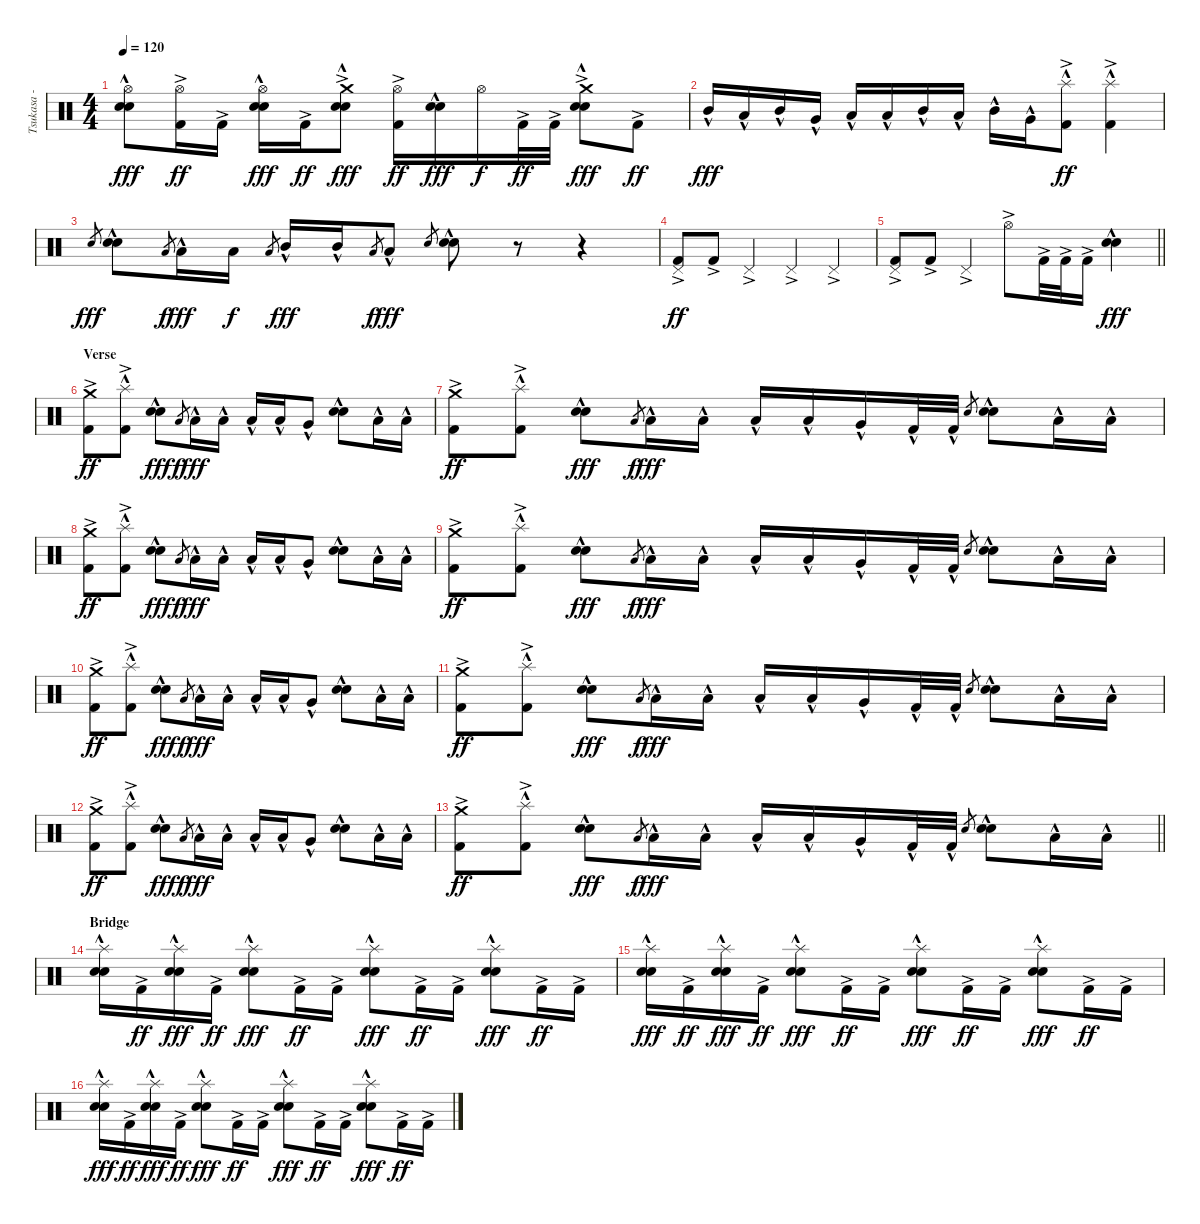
\track ("Tsukasa - Drums" "Tsukasa - ") {instrument percussion}
\staff {score}
\articulation defaults
\ts (4 4)
\tempo 120
\clef neutral
\ks c
("Hi-Hat (open)" "Electric Snare (hit)"{hac} "Snare (hit) 2"{hac}).8{dy fff} ("Hi-Hat (open)" "Kick (hit) 2"{ac}).16{dy ff} "Kick (hit) 2"{ac}.16 ("Hi-Hat (open)" "Electric Snare (hit)"{hac} "Snare (hit) 2"{hac}).16{dy fff} "Kick (hit) 2"{ac}.16{dy ff} ("Crash medium (hit)"{ac} "Electric Snare (hit)"{hac} "Snare (hit) 2"{hac}).8{dy fff} ("Hi-Hat (open)" "Kick (hit) 2"{ac}).16{dy ff} ("Electric Snare (hit)"{hac} "Snare (hit) 2"{hac}).16{dy fff} "Hi-Hat (open)".16{dy f} "Kick (hit) 2"{ac}.32{dy ff} "Kick (hit) 2"{ac}.32 ("Crash medium (hit)"{ac} "Electric Snare (hit)"{hac} "Snare (hit) 2"{hac}).8{dy fff} "Kick (hit) 2"{ac}.8{dy ff} |
"Mid Tom (hit)"{hac}.16{dy fff} "Low Tom (hit)"{hac}.16 "Mid Tom (hit)"{hac}.16 "Very Low Tom (hit)"{hac}.16 "Low Tom (hit)"{hac}.16 "Low Floor Tom (hit)"{hac}.16 "Mid Tom (hit)"{hac}.16 "Low Tom (hit)"{hac}.16 "Mid Tom (hit)"{hac}.16 "Very Low Tom (hit)"{hac}.16 ("Splash (hit)"{hac} "Kick (hit) 2"{ac}).8{dy ff} ("Splash (hit)"{hac} "Kick (hit) 2"{ac}).4 |
"Electric Snare (hit)".8{gr dy fff} ("Electric Snare (hit)"{hac} "Snare (hit) 2"{hac}).8 "Low Tom (hit)".8{gr dy f} "Low Tom (hit)"{hac}.16{dy fff} "Low Tom (hit)".16{dy f} "Low Tom (hit)".8{gr} "Mid Tom (hit)"{hac}.16{dy fff} "Mid Tom (hit)"{hac}.16 "Low Tom (hit)".8{gr dy f} "Low Tom (hit)"{hac}.8{dy fff} "Electric Snare (hit)".8{gr} ("Electric Snare (hit)"{hac} "Snare (hit) 2"{hac}).8 r.8 r.4 |
("Pedal Hi-Hat (hit)" "Kick (hit) 2"{ac}).8{dy ff} "Kick (hit) 2"{ac}.8 "Pedal Hi-Hat (hit)"{ac}.4 "Pedal Hi-Hat (hit)"{ac}.4 "Pedal Hi-Hat (hit)"{ac}.4 |
\barLineRight lightlight
("Pedal Hi-Hat (hit)" "Kick (hit) 2"{ac}).8 "Kick (hit) 2"{ac}.8 "Pedal Hi-Hat (hit)"{ac}.4 "Hi-Hat (open)"{ac}.8 "Kick (hit) 2"{ac}.32 "Kick (hit) 2"{ac}.32 "Kick (hit) 2"{ac}.16 ("Electric Snare (hit)"{hac} "Snare (hit) 2"{hac}).4{dy fff} |
\section ("" "Verse")
("Crash medium (hit)"{ac} "Kick (hit) 2"{ac}).8{dy ff} ("Splash (hit)"{hac} "Kick (hit) 2"{ac}).8 ("Electric Snare (hit)"{hac} "Snare (hit) 2"{hac}).8{dy fff} "Low Tom (hit)".8{gr dy f} "Low Tom (hit)"{hac}.16{dy fff} "Low Tom (hit)"{hac}.16 "Low Tom (hit)"{hac}.16 "Low Tom (hit)"{hac}.16 "Very Low Tom (hit)"{hac}.8 ("Electric Snare (hit)"{hac} "Snare (hit) 2"{hac}).8 "Low Floor Tom (hit)"{hac}.16 "Low Floor Tom (hit)"{hac}.16 |
("Crash medium (hit)"{ac} "Kick (hit) 2"{ac}).8{dy ff} ("Splash (hit)"{hac} "Kick (hit) 2"{ac}).8 ("Electric Snare (hit)"{hac} "Snare (hit) 2"{hac}).8{dy fff} "Low Tom (hit)".8{gr dy f} "Low Tom (hit)"{hac}.16{dy fff} "Low Tom (hit)"{hac}.16 "Low Tom (hit)"{hac}.16 "Low Tom (hit)"{hac}.16 "Very Low Tom (hit)"{hac}.16 "Kick (hit) 2"{hac}.32 "Kick (hit) 2"{hac}.32 "Electric Snare (hit)".8{gr} ("Electric Snare (hit)"{hac} "Snare (hit) 2"{hac}).8 "Low Floor Tom (hit)"{hac}.16 "Low Floor Tom (hit)"{hac}.16 |
("Crash medium (hit)"{ac} "Kick (hit) 2"{ac}).8{dy ff} ("Splash (hit)"{hac} "Kick (hit) 2"{ac}).8 ("Electric Snare (hit)"{hac} "Snare (hit) 2"{hac}).8{dy fff} "Low Tom (hit)".8{gr dy f} "Low Tom (hit)"{hac}.16{dy fff} "Low Tom (hit)"{hac}.16 "Low Tom (hit)"{hac}.16 "Low Tom (hit)"{hac}.16 "Very Low Tom (hit)"{hac}.8 ("Electric Snare (hit)"{hac} "Snare (hit) 2"{hac}).8 "Low Floor Tom (hit)"{hac}.16 "Low Floor Tom (hit)"{hac}.16 |
("Crash medium (hit)"{ac} "Kick (hit) 2"{ac}).8{dy ff} ("Splash (hit)"{hac} "Kick (hit) 2"{ac}).8 ("Electric Snare (hit)"{hac} "Snare (hit) 2"{hac}).8{dy fff} "Low Tom (hit)".8{gr dy f} "Low Tom (hit)"{hac}.16{dy fff} "Low Tom (hit)"{hac}.16 "Low Tom (hit)"{hac}.16 "Low Tom (hit)"{hac}.16 "Very Low Tom (hit)"{hac}.16 "Kick (hit) 2"{hac}.32 "Kick (hit) 2"{hac}.32 "Electric Snare (hit)".8{gr} ("Electric Snare (hit)"{hac} "Snare (hit) 2"{hac}).8 "Low Floor Tom (hit)"{hac}.16 "Low Floor Tom (hit)"{hac}.16 |
("Crash medium (hit)"{ac} "Kick (hit) 2"{ac}).8{dy ff} ("Splash (hit)"{hac} "Kick (hit) 2"{ac}).8 ("Electric Snare (hit)"{hac} "Snare (hit) 2"{hac}).8{dy fff} "Low Tom (hit)".8{gr dy f} "Low Tom (hit)"{hac}.16{dy fff} "Low Tom (hit)"{hac}.16 "Low Tom (hit)"{hac}.16 "Low Tom (hit)"{hac}.16 "Very Low Tom (hit)"{hac}.8 ("Electric Snare (hit)"{hac} "Snare (hit) 2"{hac}).8 "Low Floor Tom (hit)"{hac}.16 "Low Floor Tom (hit)"{hac}.16 |
("Crash medium (hit)"{ac} "Kick (hit) 2"{ac}).8{dy ff} ("Splash (hit)"{hac} "Kick (hit) 2"{ac}).8 ("Electric Snare (hit)"{hac} "Snare (hit) 2"{hac}).8{dy fff} "Low Tom (hit)".8{gr dy f} "Low Tom (hit)"{hac}.16{dy fff} "Low Tom (hit)"{hac}.16 "Low Tom (hit)"{hac}.16 "Low Tom (hit)"{hac}.16 "Very Low Tom (hit)"{hac}.16 "Kick (hit) 2"{hac}.32 "Kick (hit) 2"{hac}.32 "Electric Snare (hit)".8{gr} ("Electric Snare (hit)"{hac} "Snare (hit) 2"{hac}).8 "Low Floor Tom (hit)"{hac}.16 "Low Floor Tom (hit)"{hac}.16 |
("Crash medium (hit)"{ac} "Kick (hit) 2"{ac}).8{dy ff} ("Splash (hit)"{hac} "Kick (hit) 2"{ac}).8 ("Electric Snare (hit)"{hac} "Snare (hit) 2"{hac}).8{dy fff} "Low Tom (hit)".8{gr dy f} "Low Tom (hit)"{hac}.16{dy fff} "Low Tom (hit)"{hac}.16 "Low Tom (hit)"{hac}.16 "Low Tom (hit)"{hac}.16 "Very Low Tom (hit)"{hac}.8 ("Electric Snare (hit)"{hac} "Snare (hit) 2"{hac}).8 "Low Floor Tom (hit)"{hac}.16 "Low Floor Tom (hit)"{hac}.16 |
\barLineRight lightlight
("Crash medium (hit)"{ac} "Kick (hit) 2"{ac}).8{dy ff} ("Splash (hit)"{hac} "Kick (hit) 2"{ac}).8 ("Electric Snare (hit)"{hac} "Snare (hit) 2"{hac}).8{dy fff} "Low Tom (hit)".8{gr dy f} "Low Tom (hit)"{hac}.16{dy fff} "Low Tom (hit)"{hac}.16 "Low Tom (hit)"{hac}.16 "Low Tom (hit)"{hac}.16 "Very Low Tom (hit)"{hac}.16 "Kick (hit) 2"{hac}.32 "Kick (hit) 2"{hac}.32 "Electric Snare (hit)".8{gr} ("Electric Snare (hit)"{hac} "Snare (hit) 2"{hac}).8 "Low Floor Tom (hit)"{hac}.16 "Low Floor Tom (hit)"{hac}.16 |
\section ("" "Bridge")
("Splash (hit)"{hac} "Electric Snare (hit)"{hac} "Snare (hit) 2"{hac}).16 "Kick (hit) 2"{ac}.16{dy ff} ("Splash (hit)"{hac} "Electric Snare (hit)"{hac} "Snare (hit) 2"{hac}).16{dy fff} "Kick (hit) 2"{ac}.16{dy ff} ("Splash (hit)"{hac} "Electric Snare (hit)"{hac} "Snare (hit) 2"{hac}).8{dy fff} "Kick (hit) 2"{ac}.16{dy ff} "Kick (hit) 2"{ac}.16 ("Splash (hit)"{hac} "Electric Snare (hit)"{hac} "Snare (hit) 2"{hac}).8{dy fff} "Kick (hit) 2"{ac}.16{dy ff} "Kick (hit) 2"{ac}.16 ("Splash (hit)"{hac} "Electric Snare (hit)"{hac} "Snare (hit) 2"{hac}).8{dy fff} "Kick (hit) 2"{ac}.16{dy ff} "Kick (hit) 2"{ac}.16 |
("Splash (hit)"{hac} "Electric Snare (hit)"{hac} "Snare (hit) 2"{hac}).16{dy fff} "Kick (hit) 2"{ac}.16{dy ff} ("Splash (hit)"{hac} "Electric Snare (hit)"{hac} "Snare (hit) 2"{hac}).16{dy fff} "Kick (hit) 2"{ac}.16{dy ff} ("Splash (hit)"{hac} "Electric Snare (hit)"{hac} "Snare (hit) 2"{hac}).8{dy fff} "Kick (hit) 2"{ac}.16{dy ff} "Kick (hit) 2"{ac}.16 ("Splash (hit)"{hac} "Electric Snare (hit)"{hac} "Snare (hit) 2"{hac}).8{dy fff} "Kick (hit) 2"{ac}.16{dy ff} "Kick (hit) 2"{ac}.16 ("Splash (hit)"{hac} "Electric Snare (hit)"{hac} "Snare (hit) 2"{hac}).8{dy fff} "Kick (hit) 2"{ac}.16{dy ff} "Kick (hit) 2"{ac}.16 |
("Splash (hit)"{hac} "Electric Snare (hit)"{hac} "Snare (hit) 2"{hac}).16{dy fff} "Kick (hit) 2"{ac}.16{dy ff} ("Splash (hit)"{hac} "Electric Snare (hit)"{hac} "Snare (hit) 2"{hac}).16{dy fff} "Kick (hit) 2"{ac}.16{dy ff} ("Splash (hit)"{hac} "Electric Snare (hit)"{hac} "Snare (hit) 2"{hac}).8{dy fff} "Kick (hit) 2"{ac}.16{dy ff} "Kick (hit) 2"{ac}.16 ("Splash (hit)"{hac} "Electric Snare (hit)"{hac} "Snare (hit) 2"{hac}).8{dy fff} "Kick (hit) 2"{ac}.16{dy ff} "Kick (hit) 2"{ac}.16 ("Splash (hit)"{hac} "Electric Snare (hit)"{hac} "Snare (hit) 2"{hac}).8{dy fff} "Kick (hit) 2"{ac}.16{dy ff} "Kick (hit) 2"{ac}.16
